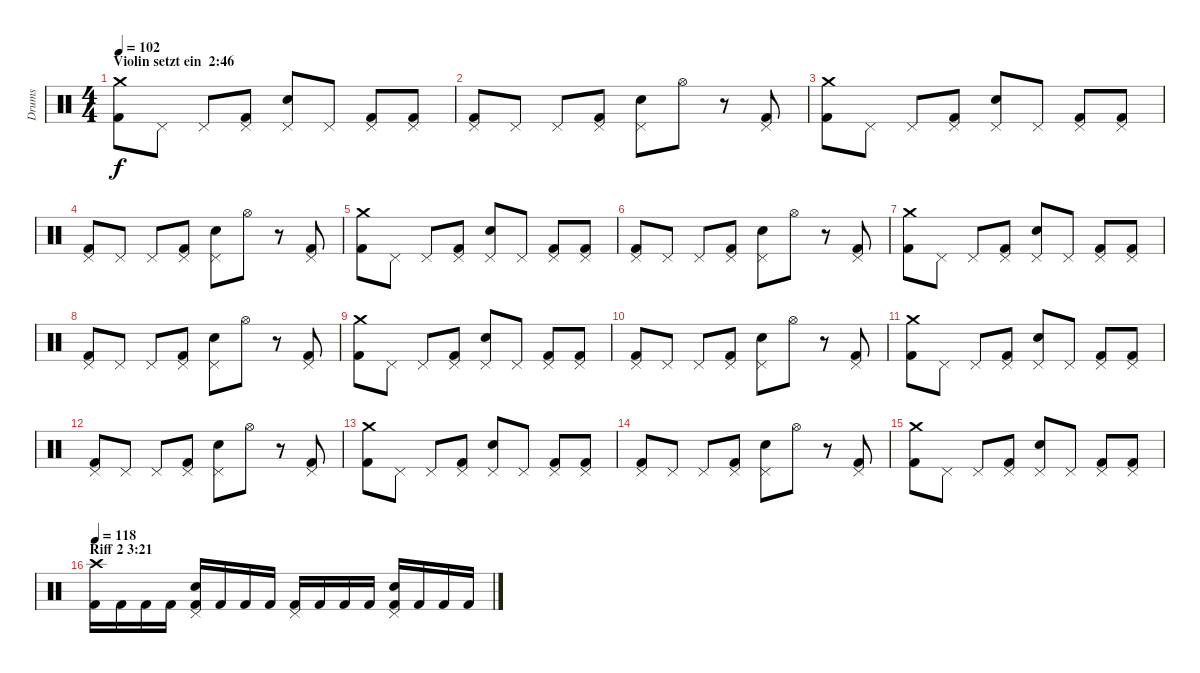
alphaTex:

\track ("Drums" "Drums") {instrument percussion}
\staff {score}
\articulation defaults
\ts (4 4)
\section ("" "Violin setzt ein  2:46")
\tempo 102
\clef neutral
\ks c
("Crash medium (hit)" "Kick (hit) 2").8{dy f} "Pedal Hi-Hat (hit)".8 "Pedal Hi-Hat (hit)".8 ("Pedal Hi-Hat (hit)" "Kick (hit) 2").8 ("Pedal Hi-Hat (hit)" "Snare (hit) 2").8 "Pedal Hi-Hat (hit)".8 ("Pedal Hi-Hat (hit)" "Kick (hit) 2").8 ("Pedal Hi-Hat (hit)" "Kick (hit) 2").8 |
("Pedal Hi-Hat (hit)" "Kick (hit) 2").8 "Pedal Hi-Hat (hit)".8 "Pedal Hi-Hat (hit)".8 ("Pedal Hi-Hat (hit)" "Kick (hit) 2").8 ("Pedal Hi-Hat (hit)" "Snare (hit) 2").8 "Hi-Hat (open)".8 r.8 ("Pedal Hi-Hat (hit)" "Kick (hit) 2").8 |
("Crash medium (hit)" "Kick (hit) 2").8 "Pedal Hi-Hat (hit)".8 "Pedal Hi-Hat (hit)".8 ("Pedal Hi-Hat (hit)" "Kick (hit) 2").8 ("Pedal Hi-Hat (hit)" "Snare (hit) 2").8 "Pedal Hi-Hat (hit)".8 ("Pedal Hi-Hat (hit)" "Kick (hit) 2").8 ("Pedal Hi-Hat (hit)" "Kick (hit) 2").8 |
("Pedal Hi-Hat (hit)" "Kick (hit) 2").8 "Pedal Hi-Hat (hit)".8 "Pedal Hi-Hat (hit)".8 ("Pedal Hi-Hat (hit)" "Kick (hit) 2").8 ("Pedal Hi-Hat (hit)" "Snare (hit) 2").8 "Hi-Hat (open)".8 r.8 ("Pedal Hi-Hat (hit)" "Kick (hit) 2").8 |
("Crash medium (hit)" "Kick (hit) 2").8 "Pedal Hi-Hat (hit)".8 "Pedal Hi-Hat (hit)".8 ("Pedal Hi-Hat (hit)" "Kick (hit) 2").8 ("Pedal Hi-Hat (hit)" "Snare (hit) 2").8 "Pedal Hi-Hat (hit)".8 ("Pedal Hi-Hat (hit)" "Kick (hit) 2").8 ("Pedal Hi-Hat (hit)" "Kick (hit) 2").8 |
("Pedal Hi-Hat (hit)" "Kick (hit) 2").8 "Pedal Hi-Hat (hit)".8 "Pedal Hi-Hat (hit)".8 ("Pedal Hi-Hat (hit)" "Kick (hit) 2").8 ("Pedal Hi-Hat (hit)" "Snare (hit) 2").8 "Hi-Hat (open)".8 r.8 ("Pedal Hi-Hat (hit)" "Kick (hit) 2").8 |
("Crash medium (hit)" "Kick (hit) 2").8 "Pedal Hi-Hat (hit)".8 "Pedal Hi-Hat (hit)".8 ("Pedal Hi-Hat (hit)" "Kick (hit) 2").8 ("Pedal Hi-Hat (hit)" "Snare (hit) 2").8 "Pedal Hi-Hat (hit)".8 ("Pedal Hi-Hat (hit)" "Kick (hit) 2").8 ("Pedal Hi-Hat (hit)" "Kick (hit) 2").8 |
("Pedal Hi-Hat (hit)" "Kick (hit) 2").8 "Pedal Hi-Hat (hit)".8 "Pedal Hi-Hat (hit)".8 ("Pedal Hi-Hat (hit)" "Kick (hit) 2").8 ("Pedal Hi-Hat (hit)" "Snare (hit) 2").8 "Hi-Hat (open)".8 r.8 ("Pedal Hi-Hat (hit)" "Kick (hit) 2").8 |
("Crash medium (hit)" "Kick (hit) 2").8 "Pedal Hi-Hat (hit)".8 "Pedal Hi-Hat (hit)".8 ("Pedal Hi-Hat (hit)" "Kick (hit) 2").8 ("Pedal Hi-Hat (hit)" "Snare (hit) 2").8 "Pedal Hi-Hat (hit)".8 ("Pedal Hi-Hat (hit)" "Kick (hit) 2").8 ("Pedal Hi-Hat (hit)" "Kick (hit) 2").8 |
("Pedal Hi-Hat (hit)" "Kick (hit) 2").8 "Pedal Hi-Hat (hit)".8 "Pedal Hi-Hat (hit)".8 ("Pedal Hi-Hat (hit)" "Kick (hit) 2").8 ("Pedal Hi-Hat (hit)" "Snare (hit) 2").8 "Hi-Hat (open)".8 r.8 ("Pedal Hi-Hat (hit)" "Kick (hit) 2").8 |
("Crash medium (hit)" "Kick (hit) 2").8 "Pedal Hi-Hat (hit)".8 "Pedal Hi-Hat (hit)".8 ("Pedal Hi-Hat (hit)" "Kick (hit) 2").8 ("Pedal Hi-Hat (hit)" "Snare (hit) 2").8 "Pedal Hi-Hat (hit)".8 ("Pedal Hi-Hat (hit)" "Kick (hit) 2").8 ("Pedal Hi-Hat (hit)" "Kick (hit) 2").8 |
("Pedal Hi-Hat (hit)" "Kick (hit) 2").8 "Pedal Hi-Hat (hit)".8 "Pedal Hi-Hat (hit)".8 ("Pedal Hi-Hat (hit)" "Kick (hit) 2").8 ("Pedal Hi-Hat (hit)" "Snare (hit) 2").8 "Hi-Hat (open)".8 r.8 ("Pedal Hi-Hat (hit)" "Kick (hit) 2").8 |
("Crash medium (hit)" "Kick (hit) 2").8 "Pedal Hi-Hat (hit)".8 "Pedal Hi-Hat (hit)".8 ("Pedal Hi-Hat (hit)" "Kick (hit) 2").8 ("Pedal Hi-Hat (hit)" "Snare (hit) 2").8 "Pedal Hi-Hat (hit)".8 ("Pedal Hi-Hat (hit)" "Kick (hit) 2").8 ("Pedal Hi-Hat (hit)" "Kick (hit) 2").8 |
("Pedal Hi-Hat (hit)" "Kick (hit) 2").8 "Pedal Hi-Hat (hit)".8 "Pedal Hi-Hat (hit)".8 ("Pedal Hi-Hat (hit)" "Kick (hit) 2").8 ("Pedal Hi-Hat (hit)" "Snare (hit) 2").8 "Hi-Hat (open)".8 r.8 ("Pedal Hi-Hat (hit)" "Kick (hit) 2").8 |
("Crash medium (hit)" "Kick (hit) 2").8 "Pedal Hi-Hat (hit)".8 "Pedal Hi-Hat (hit)".8 ("Pedal Hi-Hat (hit)" "Kick (hit) 2").8 ("Pedal Hi-Hat (hit)" "Snare (hit) 2").8 "Pedal Hi-Hat (hit)".8 ("Pedal Hi-Hat (hit)" "Kick (hit) 2").8 ("Pedal Hi-Hat (hit)" "Kick (hit) 2").8 |
\section ("" "Riff 2 3:21")
\tempo 118
("Crash high (hit)" "Kick (hit) 2").16 "Kick (hit) 2".16 "Kick (hit) 2".16 "Kick (hit) 2".16 ("Pedal Hi-Hat (hit)" "Electric Snare (hit)" "Kick (hit) 2").16 "Kick (hit) 2".16 "Kick (hit) 2".16 "Kick (hit) 2".16 ("Pedal Hi-Hat (hit)" "Kick (hit) 2").16 "Kick (hit) 2".16 "Kick (hit) 2".16 "Kick (hit) 2".16 ("Pedal Hi-Hat (hit)" "Electric Snare (hit)" "Kick (hit) 2").16 "Kick (hit) 2".16 "Kick (hit) 2".16 "Kick (hit) 2".16
